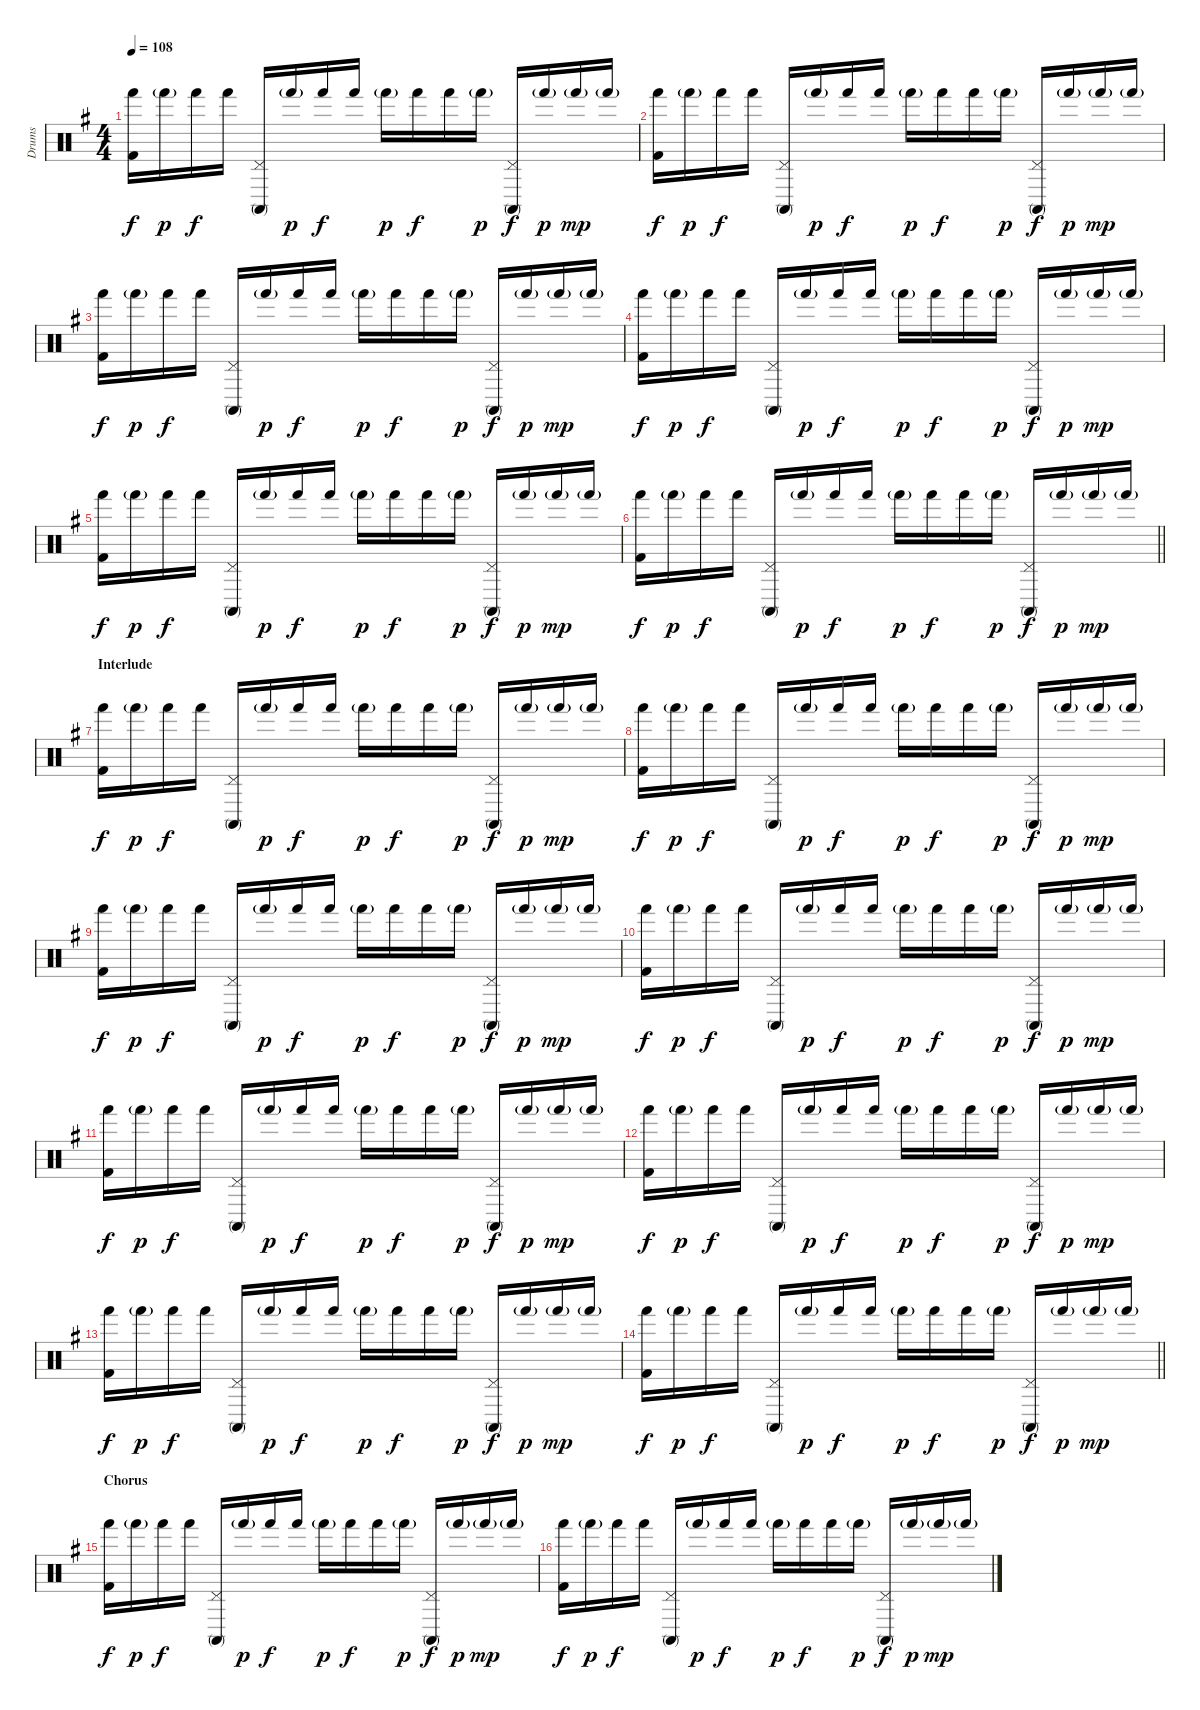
\track ("Drums" "Drums") {instrument percussion}
\staff {score}
\articulation defaults
\ts (4 4)
\tempo 108
\clef neutral
\ks eminor
("Hand (hit)" "Kick (hit) 2").16{dy f} "Hand (hit)"{g}.16{dy p} "Hand (hit)".16{dy f} "Hand (hit)".16 ("Pedal Hi-Hat (hit)" "Conga high (mute)").16 "Hand (hit)"{g}.16{dy p} "Hand (hit)".16{dy f} "Hand (hit)".16 "Hand (hit)"{g}.16{dy p} "Hand (hit)".16{dy f} "Hand (hit)".16 "Hand (hit)"{g}.16{dy p} ("Pedal Hi-Hat (hit)" "Conga high (mute)").16{dy f} "Hand (hit)"{g}.16{dy p} "Hand (hit)"{g}.16{dy mp} "Hand (hit)"{g}.16 |
("Hand (hit)" "Kick (hit) 2").16{dy f} "Hand (hit)"{g}.16{dy p} "Hand (hit)".16{dy f} "Hand (hit)".16 ("Pedal Hi-Hat (hit)" "Conga high (mute)").16 "Hand (hit)"{g}.16{dy p} "Hand (hit)".16{dy f} "Hand (hit)".16 "Hand (hit)"{g}.16{dy p} "Hand (hit)".16{dy f} "Hand (hit)".16 "Hand (hit)"{g}.16{dy p} ("Pedal Hi-Hat (hit)" "Conga high (mute)").16{dy f} "Hand (hit)"{g}.16{dy p} "Hand (hit)"{g}.16{dy mp} "Hand (hit)"{g}.16 |
("Hand (hit)" "Kick (hit) 2").16{dy f} "Hand (hit)"{g}.16{dy p} "Hand (hit)".16{dy f} "Hand (hit)".16 ("Pedal Hi-Hat (hit)" "Conga high (mute)").16 "Hand (hit)"{g}.16{dy p} "Hand (hit)".16{dy f} "Hand (hit)".16 "Hand (hit)"{g}.16{dy p} "Hand (hit)".16{dy f} "Hand (hit)".16 "Hand (hit)"{g}.16{dy p} ("Pedal Hi-Hat (hit)" "Conga high (mute)").16{dy f} "Hand (hit)"{g}.16{dy p} "Hand (hit)"{g}.16{dy mp} "Hand (hit)"{g}.16 |
("Hand (hit)" "Kick (hit) 2").16{dy f} "Hand (hit)"{g}.16{dy p} "Hand (hit)".16{dy f} "Hand (hit)".16 ("Pedal Hi-Hat (hit)" "Conga high (mute)").16 "Hand (hit)"{g}.16{dy p} "Hand (hit)".16{dy f} "Hand (hit)".16 "Hand (hit)"{g}.16{dy p} "Hand (hit)".16{dy f} "Hand (hit)".16 "Hand (hit)"{g}.16{dy p} ("Pedal Hi-Hat (hit)" "Conga high (mute)").16{dy f} "Hand (hit)"{g}.16{dy p} "Hand (hit)"{g}.16{dy mp} "Hand (hit)"{g}.16 |
("Hand (hit)" "Kick (hit) 2").16{dy f} "Hand (hit)"{g}.16{dy p} "Hand (hit)".16{dy f} "Hand (hit)".16 ("Pedal Hi-Hat (hit)" "Conga high (mute)").16 "Hand (hit)"{g}.16{dy p} "Hand (hit)".16{dy f} "Hand (hit)".16 "Hand (hit)"{g}.16{dy p} "Hand (hit)".16{dy f} "Hand (hit)".16 "Hand (hit)"{g}.16{dy p} ("Pedal Hi-Hat (hit)" "Conga high (mute)").16{dy f} "Hand (hit)"{g}.16{dy p} "Hand (hit)"{g}.16{dy mp} "Hand (hit)"{g}.16 |
\barLineRight lightlight
("Hand (hit)" "Kick (hit) 2").16{dy f} "Hand (hit)"{g}.16{dy p} "Hand (hit)".16{dy f} "Hand (hit)".16 ("Pedal Hi-Hat (hit)" "Conga high (mute)").16 "Hand (hit)"{g}.16{dy p} "Hand (hit)".16{dy f} "Hand (hit)".16 "Hand (hit)"{g}.16{dy p} "Hand (hit)".16{dy f} "Hand (hit)".16 "Hand (hit)"{g}.16{dy p} ("Pedal Hi-Hat (hit)" "Conga high (mute)").16{dy f} "Hand (hit)"{g}.16{dy p} "Hand (hit)"{g}.16{dy mp} "Hand (hit)"{g}.16 |
\section ("" "Interlude")
("Hand (hit)" "Kick (hit) 2").16{dy f} "Hand (hit)"{g}.16{dy p} "Hand (hit)".16{dy f} "Hand (hit)".16 ("Pedal Hi-Hat (hit)" "Conga high (mute)").16 "Hand (hit)"{g}.16{dy p} "Hand (hit)".16{dy f} "Hand (hit)".16 "Hand (hit)"{g}.16{dy p} "Hand (hit)".16{dy f} "Hand (hit)".16 "Hand (hit)"{g}.16{dy p} ("Pedal Hi-Hat (hit)" "Conga high (mute)").16{dy f} "Hand (hit)"{g}.16{dy p} "Hand (hit)"{g}.16{dy mp} "Hand (hit)"{g}.16 |
("Hand (hit)" "Kick (hit) 2").16{dy f} "Hand (hit)"{g}.16{dy p} "Hand (hit)".16{dy f} "Hand (hit)".16 ("Pedal Hi-Hat (hit)" "Conga high (mute)").16 "Hand (hit)"{g}.16{dy p} "Hand (hit)".16{dy f} "Hand (hit)".16 "Hand (hit)"{g}.16{dy p} "Hand (hit)".16{dy f} "Hand (hit)".16 "Hand (hit)"{g}.16{dy p} ("Pedal Hi-Hat (hit)" "Conga high (mute)").16{dy f} "Hand (hit)"{g}.16{dy p} "Hand (hit)"{g}.16{dy mp} "Hand (hit)"{g}.16 |
("Hand (hit)" "Kick (hit) 2").16{dy f} "Hand (hit)"{g}.16{dy p} "Hand (hit)".16{dy f} "Hand (hit)".16 ("Pedal Hi-Hat (hit)" "Conga high (mute)").16 "Hand (hit)"{g}.16{dy p} "Hand (hit)".16{dy f} "Hand (hit)".16 "Hand (hit)"{g}.16{dy p} "Hand (hit)".16{dy f} "Hand (hit)".16 "Hand (hit)"{g}.16{dy p} ("Pedal Hi-Hat (hit)" "Conga high (mute)").16{dy f} "Hand (hit)"{g}.16{dy p} "Hand (hit)"{g}.16{dy mp} "Hand (hit)"{g}.16 |
("Hand (hit)" "Kick (hit) 2").16{dy f} "Hand (hit)"{g}.16{dy p} "Hand (hit)".16{dy f} "Hand (hit)".16 ("Pedal Hi-Hat (hit)" "Conga high (mute)").16 "Hand (hit)"{g}.16{dy p} "Hand (hit)".16{dy f} "Hand (hit)".16 "Hand (hit)"{g}.16{dy p} "Hand (hit)".16{dy f} "Hand (hit)".16 "Hand (hit)"{g}.16{dy p} ("Pedal Hi-Hat (hit)" "Conga high (mute)").16{dy f} "Hand (hit)"{g}.16{dy p} "Hand (hit)"{g}.16{dy mp} "Hand (hit)"{g}.16 |
("Hand (hit)" "Kick (hit) 2").16{dy f} "Hand (hit)"{g}.16{dy p} "Hand (hit)".16{dy f} "Hand (hit)".16 ("Pedal Hi-Hat (hit)" "Conga high (mute)").16 "Hand (hit)"{g}.16{dy p} "Hand (hit)".16{dy f} "Hand (hit)".16 "Hand (hit)"{g}.16{dy p} "Hand (hit)".16{dy f} "Hand (hit)".16 "Hand (hit)"{g}.16{dy p} ("Pedal Hi-Hat (hit)" "Conga high (mute)").16{dy f} "Hand (hit)"{g}.16{dy p} "Hand (hit)"{g}.16{dy mp} "Hand (hit)"{g}.16 |
("Hand (hit)" "Kick (hit) 2").16{dy f} "Hand (hit)"{g}.16{dy p} "Hand (hit)".16{dy f} "Hand (hit)".16 ("Pedal Hi-Hat (hit)" "Conga high (mute)").16 "Hand (hit)"{g}.16{dy p} "Hand (hit)".16{dy f} "Hand (hit)".16 "Hand (hit)"{g}.16{dy p} "Hand (hit)".16{dy f} "Hand (hit)".16 "Hand (hit)"{g}.16{dy p} ("Pedal Hi-Hat (hit)" "Conga high (mute)").16{dy f} "Hand (hit)"{g}.16{dy p} "Hand (hit)"{g}.16{dy mp} "Hand (hit)"{g}.16 |
("Hand (hit)" "Kick (hit) 2").16{dy f} "Hand (hit)"{g}.16{dy p} "Hand (hit)".16{dy f} "Hand (hit)".16 ("Pedal Hi-Hat (hit)" "Conga high (mute)").16 "Hand (hit)"{g}.16{dy p} "Hand (hit)".16{dy f} "Hand (hit)".16 "Hand (hit)"{g}.16{dy p} "Hand (hit)".16{dy f} "Hand (hit)".16 "Hand (hit)"{g}.16{dy p} ("Pedal Hi-Hat (hit)" "Conga high (mute)").16{dy f} "Hand (hit)"{g}.16{dy p} "Hand (hit)"{g}.16{dy mp} "Hand (hit)"{g}.16 |
\barLineRight lightlight
("Hand (hit)" "Kick (hit) 2").16{dy f} "Hand (hit)"{g}.16{dy p} "Hand (hit)".16{dy f} "Hand (hit)".16 ("Pedal Hi-Hat (hit)" "Conga high (mute)").16 "Hand (hit)"{g}.16{dy p} "Hand (hit)".16{dy f} "Hand (hit)".16 "Hand (hit)"{g}.16{dy p} "Hand (hit)".16{dy f} "Hand (hit)".16 "Hand (hit)"{g}.16{dy p} ("Pedal Hi-Hat (hit)" "Conga high (mute)").16{dy f} "Hand (hit)"{g}.16{dy p} "Hand (hit)"{g}.16{dy mp} "Hand (hit)"{g}.16 |
\section ("" "Chorus")
("Hand (hit)" "Kick (hit) 2").16{dy f} "Hand (hit)"{g}.16{dy p} "Hand (hit)".16{dy f} "Hand (hit)".16 ("Pedal Hi-Hat (hit)" "Conga high (mute)").16 "Hand (hit)"{g}.16{dy p} "Hand (hit)".16{dy f} "Hand (hit)".16 "Hand (hit)"{g}.16{dy p} "Hand (hit)".16{dy f} "Hand (hit)".16 "Hand (hit)"{g}.16{dy p} ("Pedal Hi-Hat (hit)" "Conga high (mute)").16{dy f} "Hand (hit)"{g}.16{dy p} "Hand (hit)"{g}.16{dy mp} "Hand (hit)"{g}.16 |
("Hand (hit)" "Kick (hit) 2").16{dy f} "Hand (hit)"{g}.16{dy p} "Hand (hit)".16{dy f} "Hand (hit)".16 ("Pedal Hi-Hat (hit)" "Conga high (mute)").16 "Hand (hit)"{g}.16{dy p} "Hand (hit)".16{dy f} "Hand (hit)".16 "Hand (hit)"{g}.16{dy p} "Hand (hit)".16{dy f} "Hand (hit)".16 "Hand (hit)"{g}.16{dy p} ("Pedal Hi-Hat (hit)" "Conga high (mute)").16{dy f} "Hand (hit)"{g}.16{dy p} "Hand (hit)"{g}.16{dy mp} "Hand (hit)"{g}.16
